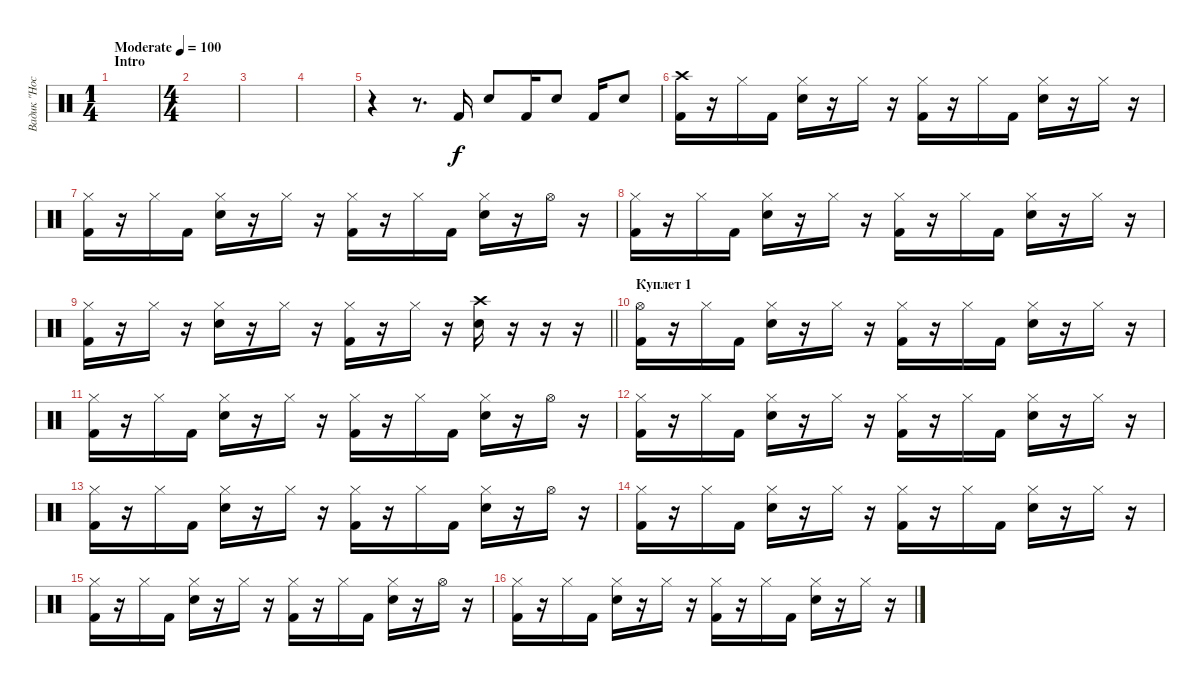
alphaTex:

\track ("Вадик \"Нос\"" "Вадик \"Нос") {instrument percussion}
\staff {score}
\articulation defaults
\ts (1 4)
\section ("" "Intro")
\tempo (100 "Moderate")
\clef neutral
\ks c
|
\ts (4 4)
|
|
|
r.4 r.8{d} "Kick (hit) 2".16 "Snare (hit) 2".8 "Kick (hit) 2".16 "Snare (hit) 2".8 "Kick (hit) 2".16 "Snare (hit) 2".8 |
("Crash high (hit)" "Kick (hit) 2").16 r.16 "Hi-Hat (closed)".16 "Kick (hit) 2".16 ("Hi-Hat (closed)" "Snare (hit) 2").16 r.16 "Hi-Hat (closed)".16 r.16 ("Hi-Hat (closed)" "Kick (hit) 2").16 r.16 "Hi-Hat (closed)".16 "Kick (hit) 2".16 ("Hi-Hat (closed)" "Snare (hit) 2").16 r.16 "Hi-Hat (closed)".16 r.16 |
("Hi-Hat (closed)" "Kick (hit) 2").16 r.16 "Hi-Hat (closed)".16 "Kick (hit) 2".16 ("Hi-Hat (closed)" "Snare (hit) 2").16 r.16 "Hi-Hat (closed)".16 r.16 ("Hi-Hat (closed)" "Kick (hit) 2").16 r.16 "Hi-Hat (closed)".16 "Kick (hit) 2".16 ("Hi-Hat (closed)" "Snare (hit) 2").16 r.16 "Hi-Hat (open)".16 r.16 |
("Hi-Hat (closed)" "Kick (hit) 2").16 r.16 "Hi-Hat (closed)".16 "Kick (hit) 2".16 ("Hi-Hat (closed)" "Snare (hit) 2").16 r.16 "Hi-Hat (closed)".16 r.16 ("Hi-Hat (closed)" "Kick (hit) 2").16 r.16 "Hi-Hat (closed)".16 "Kick (hit) 2".16 ("Hi-Hat (closed)" "Snare (hit) 2").16 r.16 "Hi-Hat (closed)".16 r.16 |
\barLineRight lightlight
("Hi-Hat (closed)" "Kick (hit) 2").16 r.16 "Hi-Hat (closed)".16 r.16 ("Hi-Hat (closed)" "Snare (hit) 2").16 r.16 "Hi-Hat (closed)".16 r.16 ("Hi-Hat (closed)" "Kick (hit) 2").16 r.16 "Hi-Hat (closed)".16 r.16 ("Crash high (hit)" "Snare (hit) 2").16 r.16 r.16 r.16 |
\section ("" "Куплет 1")
("Hi-Hat (open)" "Kick (hit) 2").16 r.16 "Hi-Hat (closed)".16 "Kick (hit) 2".16 ("Hi-Hat (closed)" "Snare (hit) 2").16 r.16 "Hi-Hat (closed)".16 r.16 ("Hi-Hat (closed)" "Kick (hit) 2").16 r.16 "Hi-Hat (closed)".16 "Kick (hit) 2".16 ("Hi-Hat (closed)" "Snare (hit) 2").16 r.16 "Hi-Hat (closed)".16 r.16 |
("Hi-Hat (closed)" "Kick (hit) 2").16 r.16 "Hi-Hat (closed)".16 "Kick (hit) 2".16 ("Hi-Hat (closed)" "Snare (hit) 2").16 r.16 "Hi-Hat (closed)".16 r.16 ("Hi-Hat (closed)" "Kick (hit) 2").16 r.16 "Hi-Hat (closed)".16 "Kick (hit) 2".16 ("Hi-Hat (closed)" "Snare (hit) 2").16 r.16 "Hi-Hat (open)".16 r.16 |
("Hi-Hat (closed)" "Kick (hit) 2").16 r.16 "Hi-Hat (closed)".16 "Kick (hit) 2".16 ("Hi-Hat (closed)" "Snare (hit) 2").16 r.16 "Hi-Hat (closed)".16 r.16 ("Hi-Hat (closed)" "Kick (hit) 2").16 r.16 "Hi-Hat (closed)".16 "Kick (hit) 2".16 ("Hi-Hat (closed)" "Snare (hit) 2").16 r.16 "Hi-Hat (closed)".16 r.16 |
("Hi-Hat (closed)" "Kick (hit) 2").16 r.16 "Hi-Hat (closed)".16 "Kick (hit) 2".16 ("Hi-Hat (closed)" "Snare (hit) 2").16 r.16 "Hi-Hat (closed)".16 r.16 ("Hi-Hat (closed)" "Kick (hit) 2").16 r.16 "Hi-Hat (closed)".16 "Kick (hit) 2".16 ("Hi-Hat (closed)" "Snare (hit) 2").16 r.16 "Hi-Hat (open)".16 r.16 |
("Hi-Hat (closed)" "Kick (hit) 2").16 r.16 "Hi-Hat (closed)".16 "Kick (hit) 2".16 ("Hi-Hat (closed)" "Snare (hit) 2").16 r.16 "Hi-Hat (closed)".16 r.16 ("Hi-Hat (closed)" "Kick (hit) 2").16 r.16 "Hi-Hat (closed)".16 "Kick (hit) 2".16 ("Hi-Hat (closed)" "Snare (hit) 2").16 r.16 "Hi-Hat (closed)".16 r.16 |
("Hi-Hat (closed)" "Kick (hit) 2").16 r.16 "Hi-Hat (closed)".16 "Kick (hit) 2".16 ("Hi-Hat (closed)" "Snare (hit) 2").16 r.16 "Hi-Hat (closed)".16 r.16 ("Hi-Hat (closed)" "Kick (hit) 2").16 r.16 "Hi-Hat (closed)".16 "Kick (hit) 2".16 ("Hi-Hat (closed)" "Snare (hit) 2").16 r.16 "Hi-Hat (open)".16 r.16 |
("Hi-Hat (closed)" "Kick (hit) 2").16 r.16 "Hi-Hat (closed)".16 "Kick (hit) 2".16 ("Hi-Hat (closed)" "Snare (hit) 2").16 r.16 "Hi-Hat (closed)".16 r.16 ("Hi-Hat (closed)" "Kick (hit) 2").16 r.16 "Hi-Hat (closed)".16 "Kick (hit) 2".16 ("Hi-Hat (closed)" "Snare (hit) 2").16 r.16 "Hi-Hat (closed)".16 r.16
